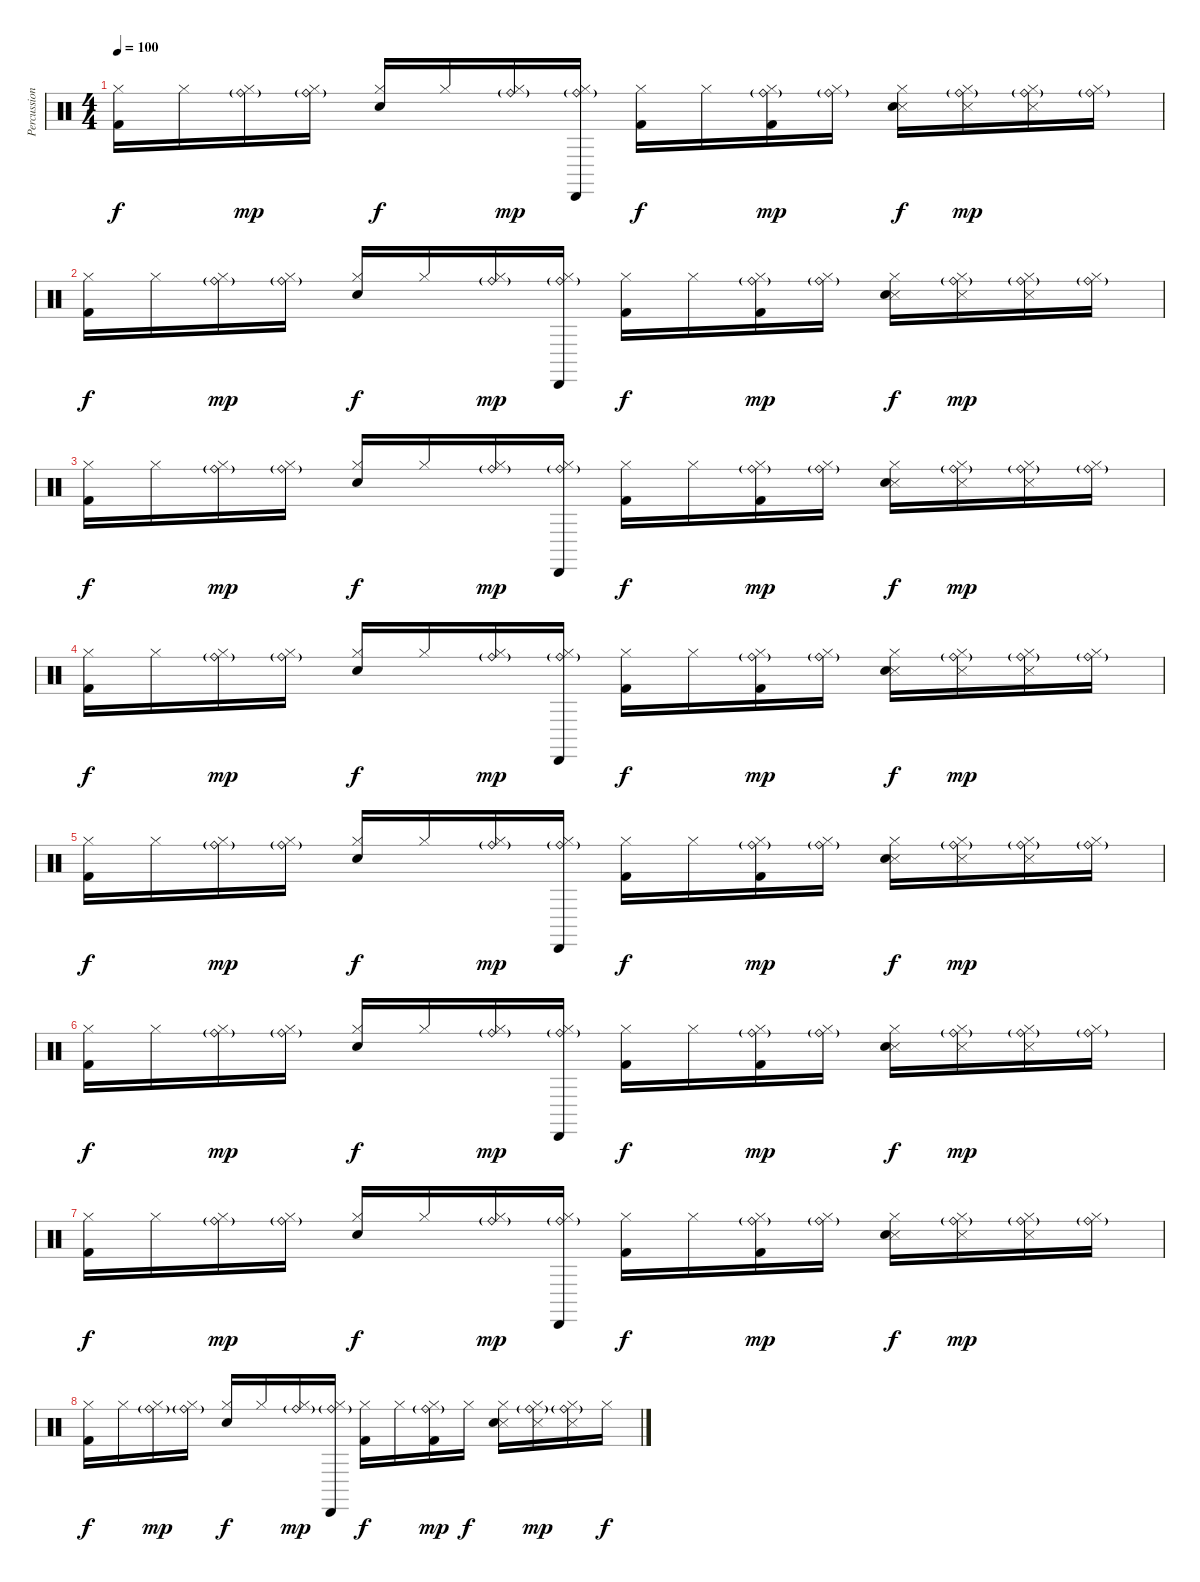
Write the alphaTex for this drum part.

\track ("Percussion" "Percussion") {instrument percussion}
\staff {score}
\articulation defaults
\ts (4 4)
\tempo 100
\clef neutral
\ks c
("Hi-Hat (closed)" "Kick (hit) 2").16{dy f} "Hi-Hat (closed)".16 ("Hi-Hat (closed)" "Ride (bell)"{g}).16{dy mp} ("Hi-Hat (closed)" "Ride (bell)"{g}).16 ("Hi-Hat (closed)" "Snare (hit) 2").16{dy f} "Hi-Hat (closed)".16 ("Hi-Hat (closed)" "Ride (bell)"{g}).16{dy mp} ("Cabasa (hit)" "Hi-Hat (closed)" "Ride (bell)"{g}).16 ("Hi-Hat (closed)" "Kick (hit) 2").16{dy f} "Hi-Hat (closed)".16 ("Hi-Hat (closed)" "Ride (bell)"{g} "Kick (hit) 2").16{dy mp} ("Hi-Hat (closed)" "Ride (bell)"{g}).16 ("Metronome (hit)" "Hi-Hat (closed)" "Snare (hit) 2").16{dy f} ("Metronome (hit)" "Hi-Hat (closed)" "Ride (bell)"{g}).16{dy mp} ("Metronome (hit)" "Hi-Hat (closed)" "Ride (bell)"{g}).16 ("Hi-Hat (closed)" "Ride (bell)"{g}).16 |
("Hi-Hat (closed)" "Kick (hit) 2").16{dy f} "Hi-Hat (closed)".16 ("Hi-Hat (closed)" "Ride (bell)"{g}).16{dy mp} ("Hi-Hat (closed)" "Ride (bell)"{g}).16 ("Hi-Hat (closed)" "Snare (hit) 2").16{dy f} "Hi-Hat (closed)".16 ("Hi-Hat (closed)" "Ride (bell)"{g}).16{dy mp} ("Cabasa (hit)" "Hi-Hat (closed)" "Ride (bell)"{g}).16 ("Hi-Hat (closed)" "Kick (hit) 2").16{dy f} "Hi-Hat (closed)".16 ("Hi-Hat (closed)" "Ride (bell)"{g} "Kick (hit) 2").16{dy mp} ("Hi-Hat (closed)" "Ride (bell)"{g}).16 ("Metronome (hit)" "Hi-Hat (closed)" "Snare (hit) 2").16{dy f} ("Metronome (hit)" "Hi-Hat (closed)" "Ride (bell)"{g}).16{dy mp} ("Metronome (hit)" "Hi-Hat (closed)" "Ride (bell)"{g}).16 ("Hi-Hat (closed)" "Ride (bell)"{g}).16 |
("Hi-Hat (closed)" "Kick (hit) 2").16{dy f} "Hi-Hat (closed)".16 ("Hi-Hat (closed)" "Ride (bell)"{g}).16{dy mp} ("Hi-Hat (closed)" "Ride (bell)"{g}).16 ("Hi-Hat (closed)" "Snare (hit) 2").16{dy f} "Hi-Hat (closed)".16 ("Hi-Hat (closed)" "Ride (bell)"{g}).16{dy mp} ("Cabasa (hit)" "Hi-Hat (closed)" "Ride (bell)"{g}).16 ("Hi-Hat (closed)" "Kick (hit) 2").16{dy f} "Hi-Hat (closed)".16 ("Hi-Hat (closed)" "Ride (bell)"{g} "Kick (hit) 2").16{dy mp} ("Hi-Hat (closed)" "Ride (bell)"{g}).16 ("Metronome (hit)" "Hi-Hat (closed)" "Snare (hit) 2").16{dy f} ("Metronome (hit)" "Hi-Hat (closed)" "Ride (bell)"{g}).16{dy mp} ("Metronome (hit)" "Hi-Hat (closed)" "Ride (bell)"{g}).16 ("Hi-Hat (closed)" "Ride (bell)"{g}).16 |
("Hi-Hat (closed)" "Kick (hit) 2").16{dy f} "Hi-Hat (closed)".16 ("Hi-Hat (closed)" "Ride (bell)"{g}).16{dy mp} ("Hi-Hat (closed)" "Ride (bell)"{g}).16 ("Hi-Hat (closed)" "Snare (hit) 2").16{dy f} "Hi-Hat (closed)".16 ("Hi-Hat (closed)" "Ride (bell)"{g}).16{dy mp} ("Cabasa (hit)" "Hi-Hat (closed)" "Ride (bell)"{g}).16 ("Hi-Hat (closed)" "Kick (hit) 2").16{dy f} "Hi-Hat (closed)".16 ("Hi-Hat (closed)" "Ride (bell)"{g} "Kick (hit) 2").16{dy mp} ("Hi-Hat (closed)" "Ride (bell)"{g}).16 ("Metronome (hit)" "Hi-Hat (closed)" "Snare (hit) 2").16{dy f} ("Metronome (hit)" "Hi-Hat (closed)" "Ride (bell)"{g}).16{dy mp} ("Metronome (hit)" "Hi-Hat (closed)" "Ride (bell)"{g}).16 ("Hi-Hat (closed)" "Ride (bell)"{g}).16 |
("Hi-Hat (closed)" "Kick (hit) 2").16{dy f} "Hi-Hat (closed)".16 ("Hi-Hat (closed)" "Ride (bell)"{g}).16{dy mp} ("Hi-Hat (closed)" "Ride (bell)"{g}).16 ("Hi-Hat (closed)" "Snare (hit) 2").16{dy f} "Hi-Hat (closed)".16 ("Hi-Hat (closed)" "Ride (bell)"{g}).16{dy mp} ("Cabasa (hit)" "Hi-Hat (closed)" "Ride (bell)"{g}).16 ("Hi-Hat (closed)" "Kick (hit) 2").16{dy f} "Hi-Hat (closed)".16 ("Hi-Hat (closed)" "Ride (bell)"{g} "Kick (hit) 2").16{dy mp} ("Hi-Hat (closed)" "Ride (bell)"{g}).16 ("Metronome (hit)" "Hi-Hat (closed)" "Snare (hit) 2").16{dy f} ("Metronome (hit)" "Hi-Hat (closed)" "Ride (bell)"{g}).16{dy mp} ("Metronome (hit)" "Hi-Hat (closed)" "Ride (bell)"{g}).16 ("Hi-Hat (closed)" "Ride (bell)"{g}).16 |
("Hi-Hat (closed)" "Kick (hit) 2").16{dy f} "Hi-Hat (closed)".16 ("Hi-Hat (closed)" "Ride (bell)"{g}).16{dy mp} ("Hi-Hat (closed)" "Ride (bell)"{g}).16 ("Hi-Hat (closed)" "Snare (hit) 2").16{dy f} "Hi-Hat (closed)".16 ("Hi-Hat (closed)" "Ride (bell)"{g}).16{dy mp} ("Cabasa (hit)" "Hi-Hat (closed)" "Ride (bell)"{g}).16 ("Hi-Hat (closed)" "Kick (hit) 2").16{dy f} "Hi-Hat (closed)".16 ("Hi-Hat (closed)" "Ride (bell)"{g} "Kick (hit) 2").16{dy mp} ("Hi-Hat (closed)" "Ride (bell)"{g}).16 ("Metronome (hit)" "Hi-Hat (closed)" "Snare (hit) 2").16{dy f} ("Metronome (hit)" "Hi-Hat (closed)" "Ride (bell)"{g}).16{dy mp} ("Metronome (hit)" "Hi-Hat (closed)" "Ride (bell)"{g}).16 ("Hi-Hat (closed)" "Ride (bell)"{g}).16 |
("Hi-Hat (closed)" "Kick (hit) 2").16{dy f} "Hi-Hat (closed)".16 ("Hi-Hat (closed)" "Ride (bell)"{g}).16{dy mp} ("Hi-Hat (closed)" "Ride (bell)"{g}).16 ("Hi-Hat (closed)" "Snare (hit) 2").16{dy f} "Hi-Hat (closed)".16 ("Hi-Hat (closed)" "Ride (bell)"{g}).16{dy mp} ("Cabasa (hit)" "Hi-Hat (closed)" "Ride (bell)"{g}).16 ("Hi-Hat (closed)" "Kick (hit) 2").16{dy f} "Hi-Hat (closed)".16 ("Hi-Hat (closed)" "Ride (bell)"{g} "Kick (hit) 2").16{dy mp} ("Hi-Hat (closed)" "Ride (bell)"{g}).16 ("Metronome (hit)" "Hi-Hat (closed)" "Snare (hit) 2").16{dy f} ("Metronome (hit)" "Hi-Hat (closed)" "Ride (bell)"{g}).16{dy mp} ("Metronome (hit)" "Hi-Hat (closed)" "Ride (bell)"{g}).16 ("Hi-Hat (closed)" "Ride (bell)"{g}).16 |
("Hi-Hat (closed)" "Kick (hit) 2").16{dy f} "Hi-Hat (closed)".16 ("Hi-Hat (closed)" "Ride (bell)"{g}).16{dy mp} ("Hi-Hat (closed)" "Ride (bell)"{g}).16 ("Hi-Hat (closed)" "Snare (hit) 2").16{dy f} "Hi-Hat (closed)".16 ("Hi-Hat (closed)" "Ride (bell)"{g}).16{dy mp} ("Cabasa (hit)" "Hi-Hat (closed)" "Ride (bell)"{g}).16 ("Hi-Hat (closed)" "Kick (hit) 2").16{dy f} "Hi-Hat (closed)".16 ("Hi-Hat (closed)" "Ride (bell)"{g} "Kick (hit) 2").16{dy mp} "Hi-Hat (closed)".16{dy f} ("Metronome (hit)" "Hi-Hat (closed)" "Snare (hit) 2").16 ("Metronome (hit)" "Hi-Hat (closed)" "Ride (bell)"{g}).16{dy mp} ("Metronome (hit)" "Hi-Hat (closed)" "Ride (bell)"{g}).16 "Hi-Hat (closed)".16{dy f}
